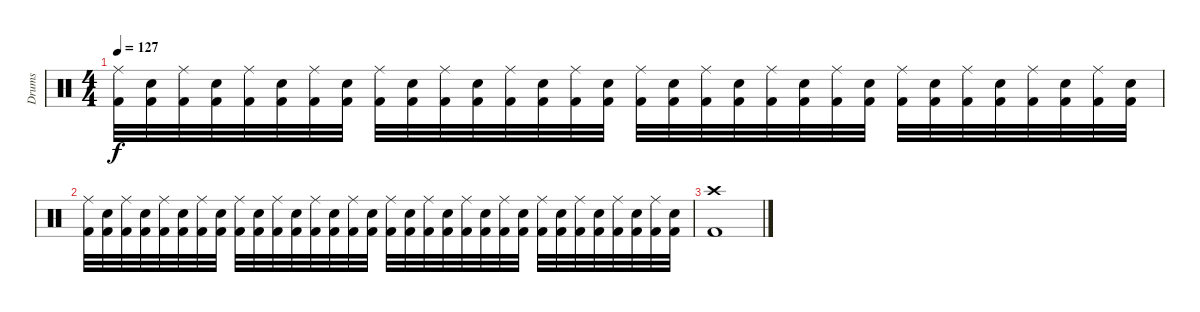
\track ("Drums" "Drums") {instrument percussion}
\staff {score}
\articulation defaults
\ts (4 4)
\tempo 127
\clef neutral
\ks c
("Ride (middle)" "Kick (hit) 2").32{dy f} ("Electric Snare (hit)" "Kick (hit) 2").32 ("Ride (middle)" "Kick (hit) 2").32 ("Electric Snare (hit)" "Kick (hit) 2").32 ("Ride (middle)" "Kick (hit) 2").32 ("Electric Snare (hit)" "Kick (hit) 2").32 ("Ride (middle)" "Kick (hit) 2").32 ("Electric Snare (hit)" "Kick (hit) 2").32 ("Ride (middle)" "Kick (hit) 2").32 ("Electric Snare (hit)" "Kick (hit) 2").32 ("Ride (middle)" "Kick (hit) 2").32 ("Electric Snare (hit)" "Kick (hit) 2").32 ("Ride (middle)" "Kick (hit) 2").32 ("Electric Snare (hit)" "Kick (hit) 2").32 ("Ride (middle)" "Kick (hit) 2").32 ("Electric Snare (hit)" "Kick (hit) 2").32 ("Ride (middle)" "Kick (hit) 2").32 ("Electric Snare (hit)" "Kick (hit) 2").32 ("Ride (middle)" "Kick (hit) 2").32 ("Electric Snare (hit)" "Kick (hit) 2").32 ("Ride (middle)" "Kick (hit) 2").32 ("Electric Snare (hit)" "Kick (hit) 2").32 ("Ride (middle)" "Kick (hit) 2").32 ("Electric Snare (hit)" "Kick (hit) 2").32 ("Ride (middle)" "Kick (hit) 2").32 ("Electric Snare (hit)" "Kick (hit) 2").32 ("Ride (middle)" "Kick (hit) 2").32 ("Electric Snare (hit)" "Kick (hit) 2").32 ("Ride (middle)" "Kick (hit) 2").32 ("Electric Snare (hit)" "Kick (hit) 2").32 ("Ride (middle)" "Kick (hit) 2").32 ("Electric Snare (hit)" "Kick (hit) 2").32 |
("Ride (middle)" "Kick (hit) 2").32 ("Electric Snare (hit)" "Kick (hit) 2").32 ("Ride (middle)" "Kick (hit) 2").32 ("Electric Snare (hit)" "Kick (hit) 2").32 ("Ride (middle)" "Kick (hit) 2").32 ("Electric Snare (hit)" "Kick (hit) 2").32 ("Ride (middle)" "Kick (hit) 2").32 ("Electric Snare (hit)" "Kick (hit) 2").32 ("Ride (middle)" "Kick (hit) 2").32 ("Electric Snare (hit)" "Kick (hit) 2").32 ("Ride (middle)" "Kick (hit) 2").32 ("Electric Snare (hit)" "Kick (hit) 2").32 ("Ride (middle)" "Kick (hit) 2").32 ("Electric Snare (hit)" "Kick (hit) 2").32 ("Ride (middle)" "Kick (hit) 2").32 ("Electric Snare (hit)" "Kick (hit) 2").32 ("Ride (middle)" "Kick (hit) 2").32 ("Electric Snare (hit)" "Kick (hit) 2").32 ("Ride (middle)" "Kick (hit) 2").32 ("Electric Snare (hit)" "Kick (hit) 2").32 ("Ride (middle)" "Kick (hit) 2").32 ("Electric Snare (hit)" "Kick (hit) 2").32 ("Ride (middle)" "Kick (hit) 2").32 ("Electric Snare (hit)" "Kick (hit) 2").32 ("Ride (middle)" "Kick (hit) 2").32 ("Electric Snare (hit)" "Kick (hit) 2").32 ("Ride (middle)" "Kick (hit) 2").32 ("Electric Snare (hit)" "Kick (hit) 2").32 ("Ride (middle)" "Kick (hit) 2").32 ("Electric Snare (hit)" "Kick (hit) 2").32 ("Ride (middle)" "Kick (hit) 2").32 ("Electric Snare (hit)" "Kick (hit) 2").32 |
("Crash high (hit)" "Kick (hit) 2").1
